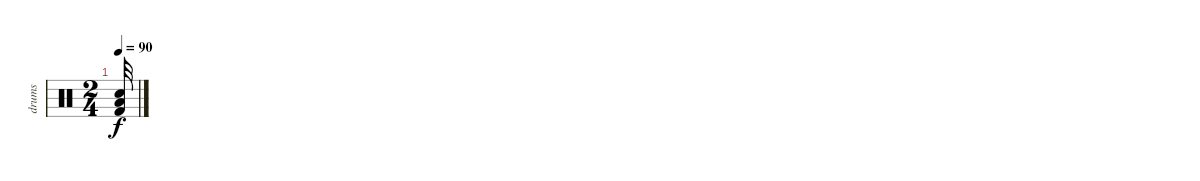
\track ("drums" "drums") {instrument percussion}
\staff {score}
\articulation defaults
\ts (2 4)
\tempo 90
\clef neutral
\ks c
("Electric Snare (hit)" "Low Floor Tom (hit)" "Kick (hit) 2").32{dy f}
